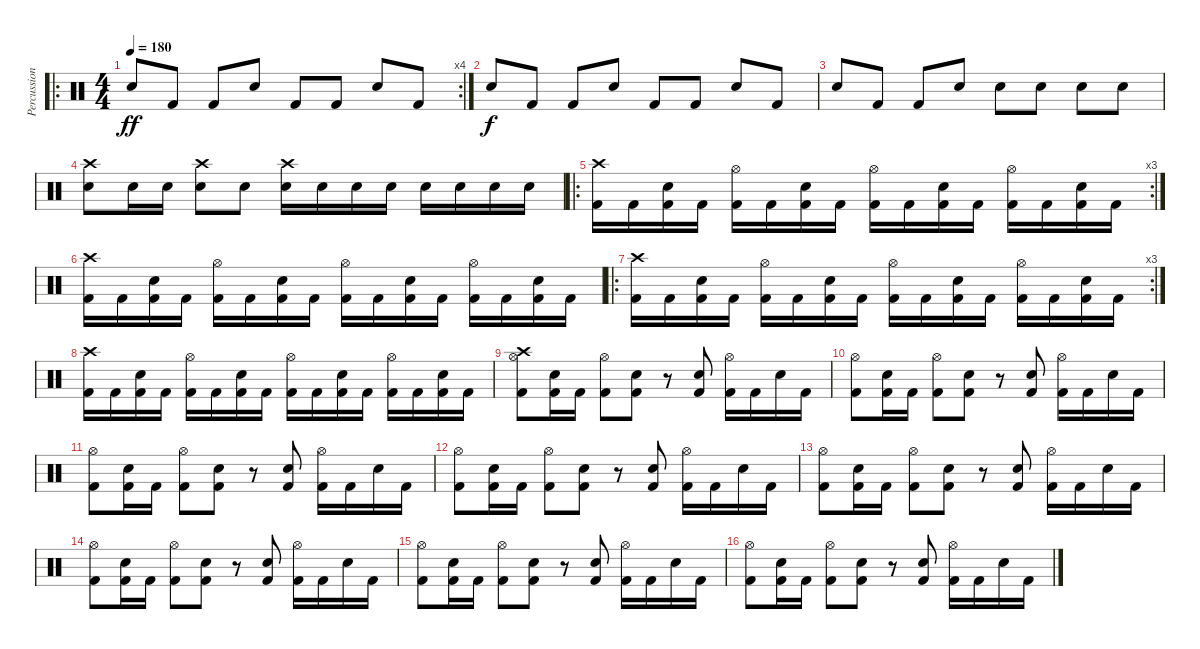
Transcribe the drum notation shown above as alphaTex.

\track ("Percussion" "Percussion") {instrument percussion}
\staff {score}
\articulation defaults
\ro
\rc 4
\ts (4 4)
\tempo 180
\clef neutral
\ks c "Electric Snare (hit)".8{dy ff} "Kick (hit) 2".8 "Kick (hit) 2".8 "Electric Snare (hit)".8 "Kick (hit) 2".8 "Kick (hit) 2".8 "Electric Snare (hit)".8 "Kick (hit) 2".8
|
"Electric Snare (hit)".8{dy f} "Kick (hit) 2".8 "Kick (hit) 2".8 "Electric Snare (hit)".8 "Kick (hit) 2".8 "Kick (hit) 2".8 "Electric Snare (hit)".8 "Kick (hit) 2".8 |
"Electric Snare (hit)".8 "Kick (hit) 2".8 "Kick (hit) 2".8 "Electric Snare (hit)".8 "Electric Snare (hit)".8 "Electric Snare (hit)".8 "Electric Snare (hit)".8 "Electric Snare (hit)".8 |
("Crash high (hit)" "Electric Snare (hit)").8 "Electric Snare (hit)".16 "Electric Snare (hit)".16 ("Crash high (hit)" "Electric Snare (hit)").8 "Electric Snare (hit)".8 ("Crash high (hit)" "Electric Snare (hit)").16 "Electric Snare (hit)".16 "Electric Snare (hit)".16 "Electric Snare (hit)".16 "Electric Snare (hit)".16 "Electric Snare (hit)".16 "Electric Snare (hit)".16 "Electric Snare (hit)".16 |
\ro
\rc 3
("Crash high (hit)" "Kick (hit) 2").16 "Kick (hit) 2".16 ("Electric Snare (hit)" "Kick (hit) 2").16 "Kick (hit) 2".16 ("Hi-Hat (open)" "Kick (hit) 2").16 "Kick (hit) 2".16 ("Electric Snare (hit)" "Kick (hit) 2").16 "Kick (hit) 2".16 ("Hi-Hat (open)" "Kick (hit) 2").16 "Kick (hit) 2".16 ("Electric Snare (hit)" "Kick (hit) 2").16 "Kick (hit) 2".16 ("Hi-Hat (open)" "Kick (hit) 2").16 "Kick (hit) 2".16 ("Electric Snare (hit)" "Kick (hit) 2").16 "Kick (hit) 2".16 |
("Crash high (hit)" "Kick (hit) 2").16 "Kick (hit) 2".16 ("Electric Snare (hit)" "Kick (hit) 2").16 "Kick (hit) 2".16 ("Hi-Hat (open)" "Kick (hit) 2").16 "Kick (hit) 2".16 ("Electric Snare (hit)" "Kick (hit) 2").16 "Kick (hit) 2".16 ("Hi-Hat (open)" "Kick (hit) 2").16 "Kick (hit) 2".16 ("Electric Snare (hit)" "Kick (hit) 2").16 "Kick (hit) 2".16 ("Hi-Hat (open)" "Kick (hit) 2").16 "Kick (hit) 2".16 ("Electric Snare (hit)" "Kick (hit) 2").16 "Kick (hit) 2".16 |
\ro
\rc 3
("Crash high (hit)" "Kick (hit) 2").16 "Kick (hit) 2".16 ("Electric Snare (hit)" "Kick (hit) 2").16 "Kick (hit) 2".16 ("Hi-Hat (open)" "Kick (hit) 2").16 "Kick (hit) 2".16 ("Electric Snare (hit)" "Kick (hit) 2").16 "Kick (hit) 2".16 ("Hi-Hat (open)" "Kick (hit) 2").16 "Kick (hit) 2".16 ("Electric Snare (hit)" "Kick (hit) 2").16 "Kick (hit) 2".16 ("Hi-Hat (open)" "Kick (hit) 2").16 "Kick (hit) 2".16 ("Electric Snare (hit)" "Kick (hit) 2").16 "Kick (hit) 2".16 |
("Crash high (hit)" "Kick (hit) 2").16 "Kick (hit) 2".16 ("Electric Snare (hit)" "Kick (hit) 2").16 "Kick (hit) 2".16 ("Hi-Hat (open)" "Kick (hit) 2").16 "Kick (hit) 2".16 ("Electric Snare (hit)" "Kick (hit) 2").16 "Kick (hit) 2".16 ("Hi-Hat (open)" "Kick (hit) 2").16 "Kick (hit) 2".16 ("Electric Snare (hit)" "Kick (hit) 2").16 "Kick (hit) 2".16 ("Hi-Hat (open)" "Kick (hit) 2").16 "Kick (hit) 2".16 ("Electric Snare (hit)" "Kick (hit) 2").16 "Kick (hit) 2".16 |
("Hi-Hat (open)" "Kick (hit) 2" "Crash high (hit)").8 ("Electric Snare (hit)" "Kick (hit) 2").16 "Kick (hit) 2".16 ("Hi-Hat (open)" "Kick (hit) 2").8 ("Electric Snare (hit)" "Kick (hit) 2").8 r.8 ("Electric Snare (hit)" "Kick (hit) 2").8 ("Hi-Hat (open)" "Kick (hit) 2").16 "Kick (hit) 2".16 "Electric Snare (hit)".16 "Kick (hit) 2".16 |
("Hi-Hat (open)" "Kick (hit) 2").8 ("Electric Snare (hit)" "Kick (hit) 2").16 "Kick (hit) 2".16 ("Hi-Hat (open)" "Kick (hit) 2").8 ("Electric Snare (hit)" "Kick (hit) 2").8 r.8 ("Electric Snare (hit)" "Kick (hit) 2").8 ("Hi-Hat (open)" "Kick (hit) 2").16 "Kick (hit) 2".16 "Electric Snare (hit)".16 "Kick (hit) 2".16 |
("Hi-Hat (open)" "Kick (hit) 2").8 ("Electric Snare (hit)" "Kick (hit) 2").16 "Kick (hit) 2".16 ("Hi-Hat (open)" "Kick (hit) 2").8 ("Electric Snare (hit)" "Kick (hit) 2").8 r.8 ("Electric Snare (hit)" "Kick (hit) 2").8 ("Hi-Hat (open)" "Kick (hit) 2").16 "Kick (hit) 2".16 "Electric Snare (hit)".16 "Kick (hit) 2".16 |
("Hi-Hat (open)" "Kick (hit) 2").8 ("Electric Snare (hit)" "Kick (hit) 2").16 "Kick (hit) 2".16 ("Hi-Hat (open)" "Kick (hit) 2").8 ("Electric Snare (hit)" "Kick (hit) 2").8 r.8 ("Electric Snare (hit)" "Kick (hit) 2").8 ("Hi-Hat (open)" "Kick (hit) 2").16 "Kick (hit) 2".16 "Electric Snare (hit)".16 "Kick (hit) 2".16 |
("Hi-Hat (open)" "Kick (hit) 2").8 ("Electric Snare (hit)" "Kick (hit) 2").16 "Kick (hit) 2".16 ("Hi-Hat (open)" "Kick (hit) 2").8 ("Electric Snare (hit)" "Kick (hit) 2").8 r.8 ("Electric Snare (hit)" "Kick (hit) 2").8 ("Hi-Hat (open)" "Kick (hit) 2").16 "Kick (hit) 2".16 "Electric Snare (hit)".16 "Kick (hit) 2".16 |
("Hi-Hat (open)" "Kick (hit) 2").8 ("Electric Snare (hit)" "Kick (hit) 2").16 "Kick (hit) 2".16 ("Hi-Hat (open)" "Kick (hit) 2").8 ("Electric Snare (hit)" "Kick (hit) 2").8 r.8 ("Electric Snare (hit)" "Kick (hit) 2").8 ("Hi-Hat (open)" "Kick (hit) 2").16 "Kick (hit) 2".16 "Electric Snare (hit)".16 "Kick (hit) 2".16 |
("Hi-Hat (open)" "Kick (hit) 2").8 ("Electric Snare (hit)" "Kick (hit) 2").16 "Kick (hit) 2".16 ("Hi-Hat (open)" "Kick (hit) 2").8 ("Electric Snare (hit)" "Kick (hit) 2").8 r.8 ("Electric Snare (hit)" "Kick (hit) 2").8 ("Hi-Hat (open)" "Kick (hit) 2").16 "Kick (hit) 2".16 "Electric Snare (hit)".16 "Kick (hit) 2".16 |
("Hi-Hat (open)" "Kick (hit) 2").8 ("Electric Snare (hit)" "Kick (hit) 2").16 "Kick (hit) 2".16 ("Hi-Hat (open)" "Kick (hit) 2").8 ("Electric Snare (hit)" "Kick (hit) 2").8 r.8 ("Electric Snare (hit)" "Kick (hit) 2").8 ("Hi-Hat (open)" "Kick (hit) 2").16 "Kick (hit) 2".16 "Electric Snare (hit)".16 "Kick (hit) 2".16
